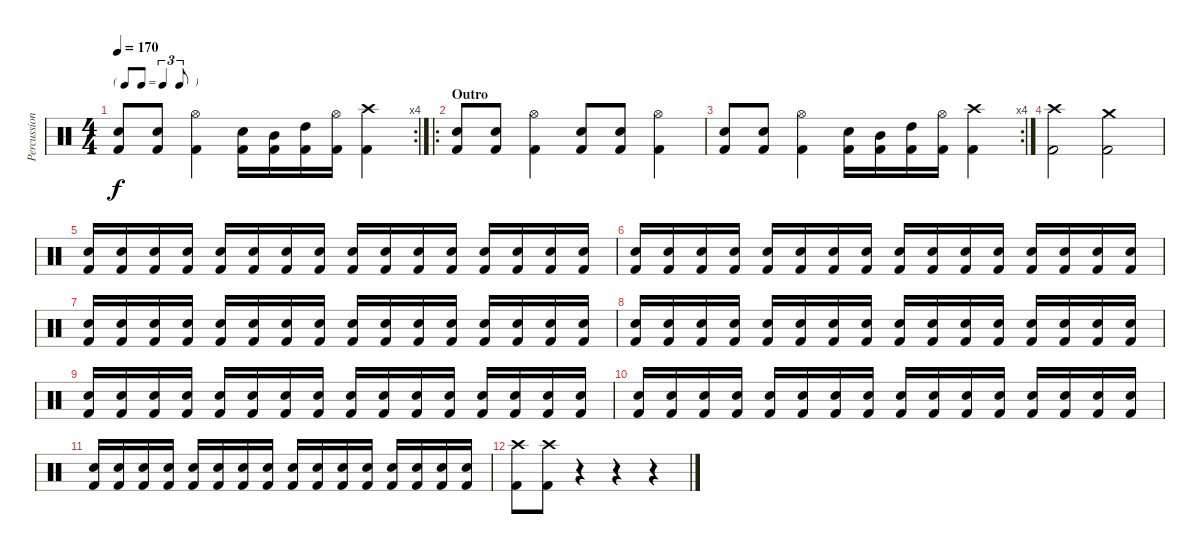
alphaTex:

\track ("Percussion" "Percussion") {instrument percussion}
\staff {score}
\articulation defaults
\rc 4
\ts (4 4)
\tf triplet8th
\tempo 170
\clef neutral
\ks c
("Electric Snare (hit)" "Kick (hit) 2").8{dy f} ("Electric Snare (hit)" "Kick (hit) 2").8 ("Hi-Hat (open)" "Kick (hit) 2").4 ("Electric Snare (hit)" "Kick (hit) 2").16 ("Mid Tom (hit)" "Kick (hit) 2").16 ("High Tom (hit)" "Kick (hit) 2").16 ("Hi-Hat (open)" "Kick (hit) 2").16 ("Crash high (hit)" "Kick (hit) 2").4 |
\ro
\section ("" "Outro")
("Electric Snare (hit)" "Kick (hit) 2").8 ("Electric Snare (hit)" "Kick (hit) 2").8 ("Hi-Hat (open)" "Kick (hit) 2").4 ("Electric Snare (hit)" "Kick (hit) 2").8 ("Electric Snare (hit)" "Kick (hit) 2").8 ("Hi-Hat (open)" "Kick (hit) 2").4 |
\rc 4
("Electric Snare (hit)" "Kick (hit) 2").8 ("Electric Snare (hit)" "Kick (hit) 2").8 ("Hi-Hat (open)" "Kick (hit) 2").4 ("Electric Snare (hit)" "Kick (hit) 2").16 ("Mid Tom (hit)" "Kick (hit) 2").16 ("High Tom (hit)" "Kick (hit) 2").16 ("Hi-Hat (open)" "Kick (hit) 2").16 ("Crash high (hit)" "Kick (hit) 2").4 |
("Crash high (hit)" "Kick (hit) 2").2 ("Crash medium (hit)" "Kick (hit) 2").2 |
("Electric Snare (hit)" "Kick (hit) 2").16 ("Electric Snare (hit)" "Kick (hit) 2").16 ("Electric Snare (hit)" "Kick (hit) 2").16 ("Electric Snare (hit)" "Kick (hit) 2").16 ("Electric Snare (hit)" "Kick (hit) 2").16 ("Electric Snare (hit)" "Kick (hit) 2").16 ("Electric Snare (hit)" "Kick (hit) 2").16 ("Electric Snare (hit)" "Kick (hit) 2").16 ("Electric Snare (hit)" "Kick (hit) 2").16 ("Electric Snare (hit)" "Kick (hit) 2").16 ("Electric Snare (hit)" "Kick (hit) 2").16 ("Electric Snare (hit)" "Kick (hit) 2").16 ("Electric Snare (hit)" "Kick (hit) 2").16 ("Electric Snare (hit)" "Kick (hit) 2").16 ("Electric Snare (hit)" "Kick (hit) 2").16 ("Electric Snare (hit)" "Kick (hit) 2").16 |
("Electric Snare (hit)" "Kick (hit) 2").16 ("Electric Snare (hit)" "Kick (hit) 2").16 ("Electric Snare (hit)" "Kick (hit) 2").16 ("Electric Snare (hit)" "Kick (hit) 2").16 ("Electric Snare (hit)" "Kick (hit) 2").16 ("Electric Snare (hit)" "Kick (hit) 2").16 ("Electric Snare (hit)" "Kick (hit) 2").16 ("Electric Snare (hit)" "Kick (hit) 2").16 ("Electric Snare (hit)" "Kick (hit) 2").16 ("Electric Snare (hit)" "Kick (hit) 2").16 ("Electric Snare (hit)" "Kick (hit) 2").16 ("Electric Snare (hit)" "Kick (hit) 2").16 ("Electric Snare (hit)" "Kick (hit) 2").16 ("Electric Snare (hit)" "Kick (hit) 2").16 ("Electric Snare (hit)" "Kick (hit) 2").16 ("Electric Snare (hit)" "Kick (hit) 2").16 |
("Electric Snare (hit)" "Kick (hit) 2").16 ("Electric Snare (hit)" "Kick (hit) 2").16 ("Electric Snare (hit)" "Kick (hit) 2").16 ("Electric Snare (hit)" "Kick (hit) 2").16 ("Electric Snare (hit)" "Kick (hit) 2").16 ("Electric Snare (hit)" "Kick (hit) 2").16 ("Electric Snare (hit)" "Kick (hit) 2").16 ("Electric Snare (hit)" "Kick (hit) 2").16 ("Electric Snare (hit)" "Kick (hit) 2").16 ("Electric Snare (hit)" "Kick (hit) 2").16 ("Electric Snare (hit)" "Kick (hit) 2").16 ("Electric Snare (hit)" "Kick (hit) 2").16 ("Electric Snare (hit)" "Kick (hit) 2").16 ("Electric Snare (hit)" "Kick (hit) 2").16 ("Electric Snare (hit)" "Kick (hit) 2").16 ("Electric Snare (hit)" "Kick (hit) 2").16 |
("Electric Snare (hit)" "Kick (hit) 2").16 ("Electric Snare (hit)" "Kick (hit) 2").16 ("Electric Snare (hit)" "Kick (hit) 2").16 ("Electric Snare (hit)" "Kick (hit) 2").16 ("Electric Snare (hit)" "Kick (hit) 2").16 ("Electric Snare (hit)" "Kick (hit) 2").16 ("Electric Snare (hit)" "Kick (hit) 2").16 ("Electric Snare (hit)" "Kick (hit) 2").16 ("Electric Snare (hit)" "Kick (hit) 2").16 ("Electric Snare (hit)" "Kick (hit) 2").16 ("Electric Snare (hit)" "Kick (hit) 2").16 ("Electric Snare (hit)" "Kick (hit) 2").16 ("Electric Snare (hit)" "Kick (hit) 2").16 ("Electric Snare (hit)" "Kick (hit) 2").16 ("Electric Snare (hit)" "Kick (hit) 2").16 ("Electric Snare (hit)" "Kick (hit) 2").16 |
("Electric Snare (hit)" "Kick (hit) 2").16 ("Electric Snare (hit)" "Kick (hit) 2").16 ("Electric Snare (hit)" "Kick (hit) 2").16 ("Electric Snare (hit)" "Kick (hit) 2").16 ("Electric Snare (hit)" "Kick (hit) 2").16 ("Electric Snare (hit)" "Kick (hit) 2").16 ("Electric Snare (hit)" "Kick (hit) 2").16 ("Electric Snare (hit)" "Kick (hit) 2").16 ("Electric Snare (hit)" "Kick (hit) 2").16 ("Electric Snare (hit)" "Kick (hit) 2").16 ("Electric Snare (hit)" "Kick (hit) 2").16 ("Electric Snare (hit)" "Kick (hit) 2").16 ("Electric Snare (hit)" "Kick (hit) 2").16 ("Electric Snare (hit)" "Kick (hit) 2").16 ("Electric Snare (hit)" "Kick (hit) 2").16 ("Electric Snare (hit)" "Kick (hit) 2").16 |
("Electric Snare (hit)" "Kick (hit) 2").16 ("Electric Snare (hit)" "Kick (hit) 2").16 ("Electric Snare (hit)" "Kick (hit) 2").16 ("Electric Snare (hit)" "Kick (hit) 2").16 ("Electric Snare (hit)" "Kick (hit) 2").16 ("Electric Snare (hit)" "Kick (hit) 2").16 ("Electric Snare (hit)" "Kick (hit) 2").16 ("Electric Snare (hit)" "Kick (hit) 2").16 ("Electric Snare (hit)" "Kick (hit) 2").16 ("Electric Snare (hit)" "Kick (hit) 2").16 ("Electric Snare (hit)" "Kick (hit) 2").16 ("Electric Snare (hit)" "Kick (hit) 2").16 ("Electric Snare (hit)" "Kick (hit) 2").16 ("Electric Snare (hit)" "Kick (hit) 2").16 ("Electric Snare (hit)" "Kick (hit) 2").16 ("Electric Snare (hit)" "Kick (hit) 2").16 |
("Electric Snare (hit)" "Kick (hit) 2").16 ("Electric Snare (hit)" "Kick (hit) 2").16 ("Electric Snare (hit)" "Kick (hit) 2").16 ("Electric Snare (hit)" "Kick (hit) 2").16 ("Electric Snare (hit)" "Kick (hit) 2").16 ("Electric Snare (hit)" "Kick (hit) 2").16 ("Electric Snare (hit)" "Kick (hit) 2").16 ("Electric Snare (hit)" "Kick (hit) 2").16 ("Electric Snare (hit)" "Kick (hit) 2").16 ("Electric Snare (hit)" "Kick (hit) 2").16 ("Electric Snare (hit)" "Kick (hit) 2").16 ("Electric Snare (hit)" "Kick (hit) 2").16 ("Electric Snare (hit)" "Kick (hit) 2").16 ("Electric Snare (hit)" "Kick (hit) 2").16 ("Electric Snare (hit)" "Kick (hit) 2").16 ("Electric Snare (hit)" "Kick (hit) 2").16 |
("Crash high (hit)" "Kick (hit) 2").8 ("Crash high (hit)" "Kick (hit) 2").8 r.4 r.4 r.4
